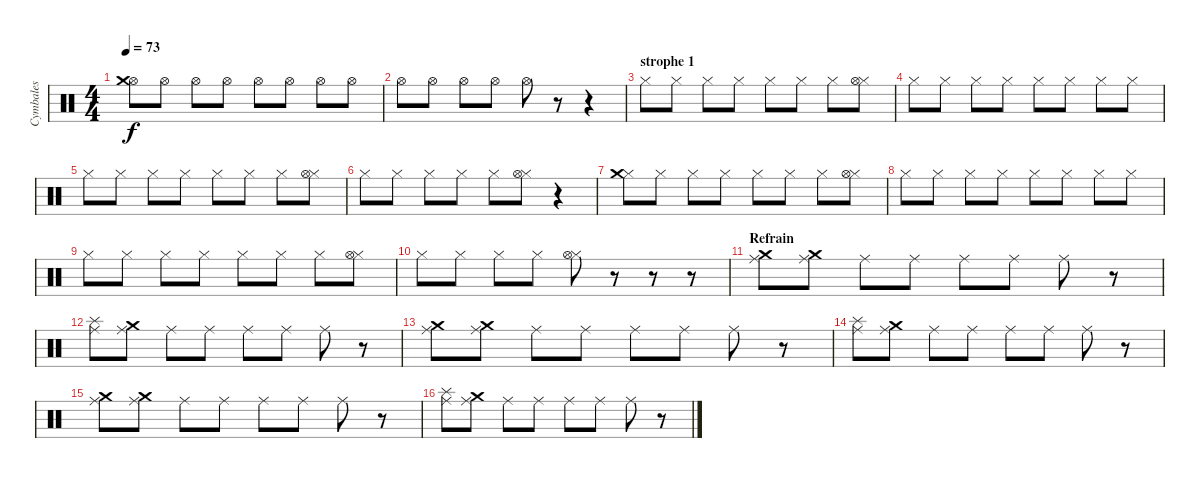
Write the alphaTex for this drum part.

\track ("Cymbales" "Cymbales") {instrument percussion}
\staff {score}
\articulation defaults
\ts (4 4)
\tempo 73
\clef neutral
\ks c
("Hi-Hat (open)" "Crash medium (hit)").8{dy f} "Hi-Hat (open)".8 "Hi-Hat (open)".8 "Hi-Hat (open)".8 "Hi-Hat (open)".8 "Hi-Hat (open)".8 "Hi-Hat (open)".8 "Hi-Hat (open)".8 |
"Hi-Hat (open)".8 "Hi-Hat (open)".8 "Hi-Hat (open)".8 "Hi-Hat (open)".8 "Hi-Hat (open)".8 r.8 r.4 |
\section ("" "strophe 1")
"Hi-Hat (closed)".8 "Hi-Hat (closed)".8 "Hi-Hat (closed)".8 "Hi-Hat (closed)".8 "Hi-Hat (closed)".8 "Hi-Hat (closed)".8 "Hi-Hat (closed)".8 ("Hi-Hat (closed)" "Hi-Hat (open)").8 |
"Hi-Hat (closed)".8 "Hi-Hat (closed)".8 "Hi-Hat (closed)".8 "Hi-Hat (closed)".8 "Hi-Hat (closed)".8 "Hi-Hat (closed)".8 "Hi-Hat (closed)".8 "Hi-Hat (closed)".8 |
"Hi-Hat (closed)".8 "Hi-Hat (closed)".8 "Hi-Hat (closed)".8 "Hi-Hat (closed)".8 "Hi-Hat (closed)".8 "Hi-Hat (closed)".8 "Hi-Hat (closed)".8 ("Hi-Hat (closed)" "Hi-Hat (open)").8 |
"Hi-Hat (closed)".8 "Hi-Hat (closed)".8 "Hi-Hat (closed)".8 "Hi-Hat (closed)".8 "Hi-Hat (closed)".8 ("Hi-Hat (closed)" "Hi-Hat (open)").8 r.4 |
("Hi-Hat (closed)" "Crash medium (hit)").8 "Hi-Hat (closed)".8 "Hi-Hat (closed)".8 "Hi-Hat (closed)".8 "Hi-Hat (closed)".8 "Hi-Hat (closed)".8 "Hi-Hat (closed)".8 ("Hi-Hat (closed)" "Hi-Hat (open)").8 |
"Hi-Hat (closed)".8 "Hi-Hat (closed)".8 "Hi-Hat (closed)".8 "Hi-Hat (closed)".8 "Hi-Hat (closed)".8 "Hi-Hat (closed)".8 "Hi-Hat (closed)".8 "Hi-Hat (closed)".8 |
"Hi-Hat (closed)".8 "Hi-Hat (closed)".8 "Hi-Hat (closed)".8 "Hi-Hat (closed)".8 "Hi-Hat (closed)".8 "Hi-Hat (closed)".8 "Hi-Hat (closed)".8 ("Hi-Hat (closed)" "Hi-Hat (open)").8 |
"Hi-Hat (closed)".8 "Hi-Hat (closed)".8 "Hi-Hat (closed)".8 "Hi-Hat (closed)".8 ("Hi-Hat (closed)" "Hi-Hat (open)").8 r.8 r.8 r.8 |
\section ("" "Refrain")
("Ride (middle)" "Crash medium (hit)").8 ("Ride (middle)" "Crash medium (hit)").8 "Ride (middle)".8 "Ride (middle)".8 "Ride (middle)".8 "Ride (middle)".8 "Ride (middle)".8 r.8 |
("Ride (middle)" "Splash (hit)").8 ("Ride (middle)" "Crash medium (hit)").8 "Ride (middle)".8 "Ride (middle)".8 "Ride (middle)".8 "Ride (middle)".8 "Ride (middle)".8 r.8 |
("Ride (middle)" "Crash medium (hit)").8 ("Ride (middle)" "Crash medium (hit)").8 "Ride (middle)".8 "Ride (middle)".8 "Ride (middle)".8 "Ride (middle)".8 "Ride (middle)".8 r.8 |
("Ride (middle)" "Splash (hit)").8 ("Ride (middle)" "Crash medium (hit)").8 "Ride (middle)".8 "Ride (middle)".8 "Ride (middle)".8 "Ride (middle)".8 "Ride (middle)".8 r.8 |
("Ride (middle)" "Crash medium (hit)").8 ("Ride (middle)" "Crash medium (hit)").8 "Ride (middle)".8 "Ride (middle)".8 "Ride (middle)".8 "Ride (middle)".8 "Ride (middle)".8 r.8 |
("Ride (middle)" "Splash (hit)").8 ("Ride (middle)" "Crash medium (hit)").8 "Ride (middle)".8 "Ride (middle)".8 "Ride (middle)".8 "Ride (middle)".8 "Ride (middle)".8 r.8
